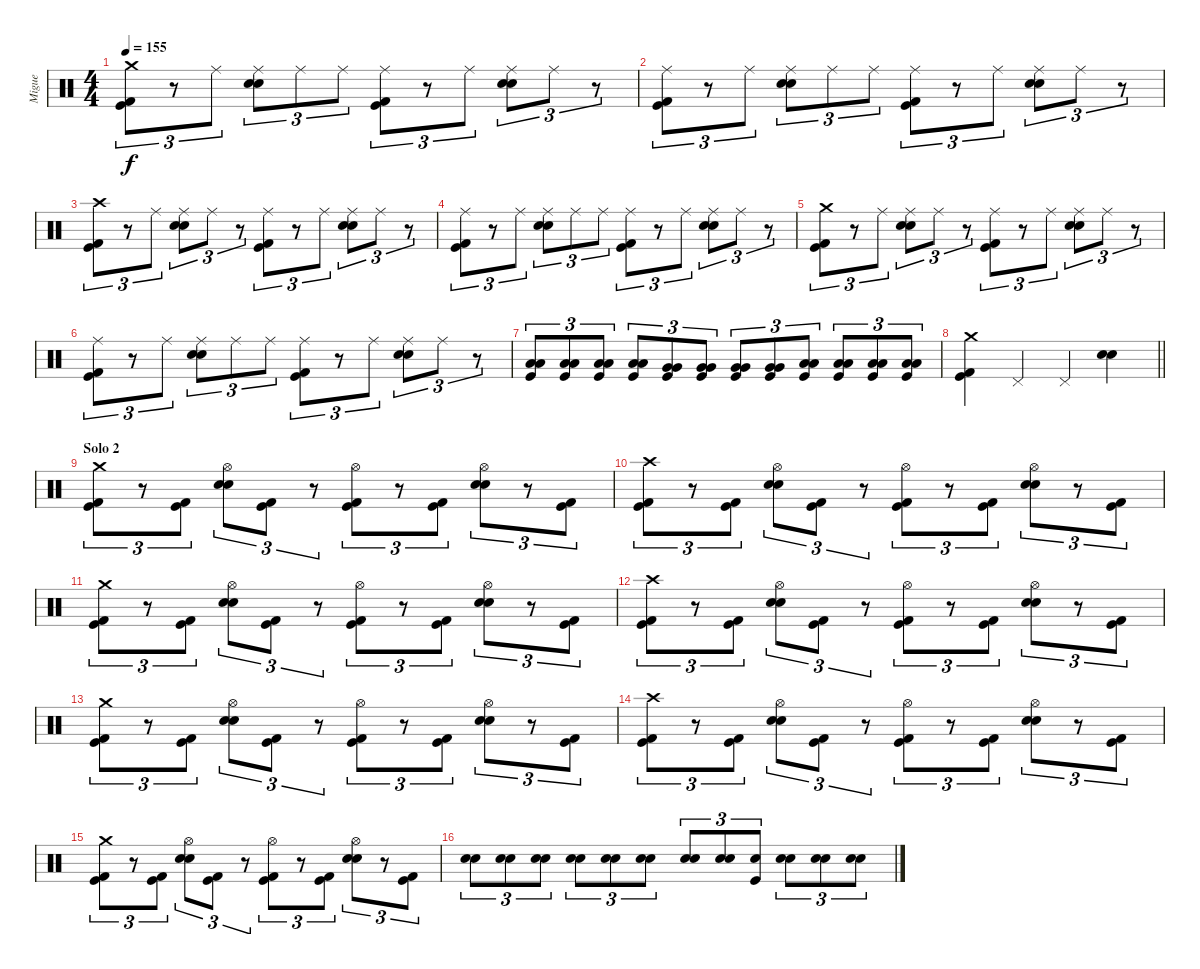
\track ("Migue" "Migue") {instrument percussion}
\staff {score}
\articulation defaults
\ts (4 4)
\tempo 155
\clef neutral
\ks c
("Crash medium (hit)" "Kick (hit) 2" "Kick (hit)").8{tu (3 2) dy f} r.8{tu (3 2)} "Ride (middle)".8{tu (3 2)} ("Ride (middle)" "Snare (hit) 2" "Snare (hit) 2").8{tu (3 2)} "Ride (middle)".8{tu (3 2)} "Ride (middle)".8{tu (3 2)} ("Ride (middle)" "Kick (hit) 2" "Kick (hit)").8{tu (3 2)} r.8{tu (3 2)} "Ride (middle)".8{tu (3 2)} ("Ride (middle)" "Snare (hit) 2" "Snare (hit) 2").8{tu (3 2)} "Ride (middle)".8{tu (3 2)} r.8{tu (3 2)} |
("Ride (middle)" "Kick (hit) 2" "Kick (hit)").8{tu (3 2)} r.8{tu (3 2)} "Ride (middle)".8{tu (3 2)} ("Ride (middle)" "Snare (hit) 2" "Snare (hit) 2").8{tu (3 2)} "Ride (middle)".8{tu (3 2)} "Ride (middle)".8{tu (3 2)} ("Ride (middle)" "Kick (hit) 2" "Kick (hit)").8{tu (3 2)} r.8{tu (3 2)} "Ride (middle)".8{tu (3 2)} ("Ride (middle)" "Snare (hit) 2" "Snare (hit) 2").8{tu (3 2)} "Ride (middle)".8{tu (3 2)} r.8{tu (3 2)} |
("Crash high (hit)" "Kick (hit) 2" "Kick (hit)").8{tu (3 2)} r.8{tu (3 2)} "Ride (middle)".8{tu (3 2)} ("Ride (middle)" "Snare (hit) 2" "Snare (hit) 2").8{tu (3 2)} "Ride (middle)".8{tu (3 2)} r.8{tu (3 2)} ("Ride (middle)" "Kick (hit) 2" "Kick (hit)").8{tu (3 2)} r.8{tu (3 2)} "Ride (middle)".8{tu (3 2)} ("Ride (middle)" "Snare (hit) 2" "Snare (hit) 2").8{tu (3 2)} "Ride (middle)".8{tu (3 2)} r.8{tu (3 2)} |
("Ride (middle)" "Kick (hit) 2" "Kick (hit)").8{tu (3 2)} r.8{tu (3 2)} "Ride (middle)".8{tu (3 2)} ("Ride (middle)" "Snare (hit) 2" "Snare (hit) 2").8{tu (3 2)} "Ride (middle)".8{tu (3 2)} "Ride (middle)".8{tu (3 2)} ("Ride (middle)" "Kick (hit) 2" "Kick (hit)").8{tu (3 2)} r.8{tu (3 2)} "Ride (middle)".8{tu (3 2)} ("Ride (middle)" "Snare (hit) 2" "Snare (hit) 2").8{tu (3 2)} "Ride (middle)".8{tu (3 2)} r.8{tu (3 2)} |
("Crash medium (hit)" "Kick (hit) 2" "Kick (hit)").8{tu (3 2)} r.8{tu (3 2)} "Ride (middle)".8{tu (3 2)} ("Ride (middle)" "Snare (hit) 2" "Snare (hit) 2").8{tu (3 2)} "Ride (middle)".8{tu (3 2)} r.8{tu (3 2)} ("Ride (middle)" "Kick (hit) 2" "Kick (hit)").8{tu (3 2)} r.8{tu (3 2)} "Ride (middle)".8{tu (3 2)} ("Ride (middle)" "Snare (hit) 2" "Snare (hit) 2").8{tu (3 2)} "Ride (middle)".8{tu (3 2)} r.8{tu (3 2)} |
("Ride (middle)" "Kick (hit) 2" "Kick (hit)").8{tu (3 2)} r.8{tu (3 2)} "Ride (middle)".8{tu (3 2)} ("Ride (middle)" "Snare (hit) 2" "Snare (hit) 2").8{tu (3 2)} "Ride (middle)".8{tu (3 2)} "Ride (middle)".8{tu (3 2)} ("Ride (middle)" "Kick (hit) 2" "Kick (hit)").8{tu (3 2)} r.8{tu (3 2)} "Ride (middle)".8{tu (3 2)} ("Ride (middle)" "Snare (hit) 2" "Snare (hit) 2").8{tu (3 2)} "Ride (middle)".8{tu (3 2)} r.8{tu (3 2)} |
("Low Tom (hit)" "Low Tom (hit)" "Kick (hit)").8{tu (3 2)} ("Low Tom (hit)" "Low Tom (hit)" "Kick (hit)").8{tu (3 2)} ("Low Tom (hit)" "Low Tom (hit)" "Kick (hit)").8{tu (3 2)} ("Low Tom (hit)" "Low Tom (hit)" "Kick (hit)").8{tu (3 2)} ("Very Low Tom (hit)" "Very Low Tom (hit)" "Kick (hit)").8{tu (3 2)} ("Very Low Tom (hit)" "Very Low Tom (hit)" "Kick (hit)").8{tu (3 2)} ("Very Low Tom (hit)" "Very Low Tom (hit)" "Kick (hit)").8{tu (3 2)} ("Very Low Tom (hit)" "Very Low Tom (hit)" "Kick (hit)").8{tu (3 2)} ("Low Floor Tom (hit)" "Low Floor Tom (hit)" "Kick (hit)").8{tu (3 2)} ("Low Floor Tom (hit)" "Low Floor Tom (hit)" "Kick (hit)").8{tu (3 2)} ("Low Floor Tom (hit)" "Low Floor Tom (hit)" "Kick (hit)").8{tu (3 2)} ("Low Floor Tom (hit)" "Low Floor Tom (hit)" "Kick (hit)").8{tu (3 2)} |
\barLineRight lightlight
("Crash medium (hit)" "Kick (hit) 2" "Kick (hit)").4 "Pedal Hi-Hat (hit)".4 "Pedal Hi-Hat (hit)".4 ("Snare (hit) 2" "Snare (hit) 2").4 |
\section ("" "Solo 2")
("Crash medium (hit)" "Kick (hit) 2" "Kick (hit)").8{tu (3 2)} r.8{tu (3 2)} ("Kick (hit) 2" "Kick (hit)").8{tu (3 2)} ("Hi-Hat (open)" "Snare (hit) 2" "Snare (hit) 2").8{tu (3 2)} ("Kick (hit)" "Kick (hit) 2").8{tu (3 2)} r.8{tu (3 2)} ("Hi-Hat (open)" "Kick (hit) 2" "Kick (hit)").8{tu (3 2)} r.8{tu (3 2)} ("Kick (hit) 2" "Kick (hit)").8{tu (3 2)} ("Hi-Hat (open)" "Snare (hit) 2" "Snare (hit) 2").8{tu (3 2)} r.8{tu (3 2)} ("Kick (hit) 2" "Kick (hit)").8{tu (3 2)} |
("Crash high (hit)" "Kick (hit) 2" "Kick (hit)").8{tu (3 2)} r.8{tu (3 2)} ("Kick (hit) 2" "Kick (hit)").8{tu (3 2)} ("Hi-Hat (open)" "Snare (hit) 2" "Snare (hit) 2").8{tu (3 2)} ("Kick (hit) 2" "Kick (hit)").8{tu (3 2)} r.8{tu (3 2)} ("Hi-Hat (open)" "Kick (hit) 2" "Kick (hit)").8{tu (3 2)} r.8{tu (3 2)} ("Kick (hit) 2" "Kick (hit)").8{tu (3 2)} ("Hi-Hat (open)" "Snare (hit) 2" "Snare (hit) 2").8{tu (3 2)} r.8{tu (3 2)} ("Kick (hit) 2" "Kick (hit)").8{tu (3 2)} |
("Crash medium (hit)" "Kick (hit) 2" "Kick (hit)").8{tu (3 2)} r.8{tu (3 2)} ("Kick (hit) 2" "Kick (hit)").8{tu (3 2)} ("Hi-Hat (open)" "Snare (hit) 2" "Snare (hit) 2").8{tu (3 2)} ("Kick (hit) 2" "Kick (hit)").8{tu (3 2)} r.8{tu (3 2)} ("Hi-Hat (open)" "Kick (hit) 2" "Kick (hit)").8{tu (3 2)} r.8{tu (3 2)} ("Kick (hit) 2" "Kick (hit)").8{tu (3 2)} ("Hi-Hat (open)" "Snare (hit) 2" "Snare (hit) 2").8{tu (3 2)} r.8{tu (3 2)} ("Kick (hit) 2" "Kick (hit)").8{tu (3 2)} |
("Crash high (hit)" "Kick (hit) 2" "Kick (hit)").8{tu (3 2)} r.8{tu (3 2)} ("Kick (hit) 2" "Kick (hit)").8{tu (3 2)} ("Hi-Hat (open)" "Snare (hit) 2" "Snare (hit) 2").8{tu (3 2)} ("Kick (hit) 2" "Kick (hit)").8{tu (3 2)} r.8{tu (3 2)} ("Hi-Hat (open)" "Kick (hit) 2" "Kick (hit)").8{tu (3 2)} r.8{tu (3 2)} ("Kick (hit) 2" "Kick (hit)").8{tu (3 2)} ("Hi-Hat (open)" "Snare (hit) 2" "Snare (hit) 2").8{tu (3 2)} r.8{tu (3 2)} ("Kick (hit) 2" "Kick (hit)").8{tu (3 2)} |
("Crash medium (hit)" "Kick (hit) 2" "Kick (hit)").8{tu (3 2)} r.8{tu (3 2)} ("Kick (hit) 2" "Kick (hit)").8{tu (3 2)} ("Hi-Hat (open)" "Snare (hit) 2" "Snare (hit) 2").8{tu (3 2)} ("Kick (hit) 2" "Kick (hit)").8{tu (3 2)} r.8{tu (3 2)} ("Hi-Hat (open)" "Kick (hit) 2" "Kick (hit)").8{tu (3 2)} r.8{tu (3 2)} ("Kick (hit) 2" "Kick (hit)").8{tu (3 2)} ("Hi-Hat (open)" "Snare (hit) 2" "Snare (hit) 2").8{tu (3 2)} r.8{tu (3 2)} ("Kick (hit) 2" "Kick (hit)").8{tu (3 2)} |
("Crash high (hit)" "Kick (hit) 2" "Kick (hit)").8{tu (3 2)} r.8{tu (3 2)} ("Kick (hit) 2" "Kick (hit)").8{tu (3 2)} ("Hi-Hat (open)" "Snare (hit) 2" "Snare (hit) 2").8{tu (3 2)} ("Kick (hit) 2" "Kick (hit)").8{tu (3 2)} r.8{tu (3 2)} ("Hi-Hat (open)" "Kick (hit) 2" "Kick (hit)").8{tu (3 2)} r.8{tu (3 2)} ("Kick (hit) 2" "Kick (hit)").8{tu (3 2)} ("Hi-Hat (open)" "Snare (hit) 2" "Snare (hit) 2").8{tu (3 2)} r.8{tu (3 2)} ("Kick (hit) 2" "Kick (hit)").8{tu (3 2)} |
("Crash medium (hit)" "Kick (hit) 2" "Kick (hit)").8{tu (3 2)} r.8{tu (3 2)} ("Kick (hit) 2" "Kick (hit)").8{tu (3 2)} ("Hi-Hat (open)" "Snare (hit) 2" "Snare (hit) 2").8{tu (3 2)} ("Kick (hit) 2" "Kick (hit)").8{tu (3 2)} r.8{tu (3 2)} ("Hi-Hat (open)" "Kick (hit) 2" "Kick (hit)").8{tu (3 2)} r.8{tu (3 2)} ("Kick (hit) 2" "Kick (hit)").8{tu (3 2)} ("Hi-Hat (open)" "Snare (hit) 2" "Snare (hit) 2").8{tu (3 2)} r.8{tu (3 2)} ("Kick (hit) 2" "Kick (hit)").8{tu (3 2)} |
("Snare (hit) 2" "Snare (hit) 2").8{tu (3 2)} ("Snare (hit) 2" "Snare (hit) 2").8{tu (3 2)} ("Snare (hit) 2" "Snare (hit) 2").8{tu (3 2)} ("Snare (hit) 2" "Snare (hit) 2").8{tu (3 2)} ("Snare (hit) 2" "Snare (hit) 2").8{tu (3 2)} ("Snare (hit) 2" "Snare (hit) 2").8{tu (3 2)} ("Snare (hit) 2" "Snare (hit) 2").8{tu (3 2)} ("Snare (hit) 2" "Snare (hit) 2").8{tu (3 2)} ("Snare (hit) 2" "Kick (hit)").8{tu (3 2)} ("Snare (hit) 2" "Snare (hit) 2").8{tu (3 2)} ("Snare (hit) 2" "Snare (hit) 2").8{tu (3 2)} ("Snare (hit) 2" "Snare (hit) 2").8{tu (3 2)}
